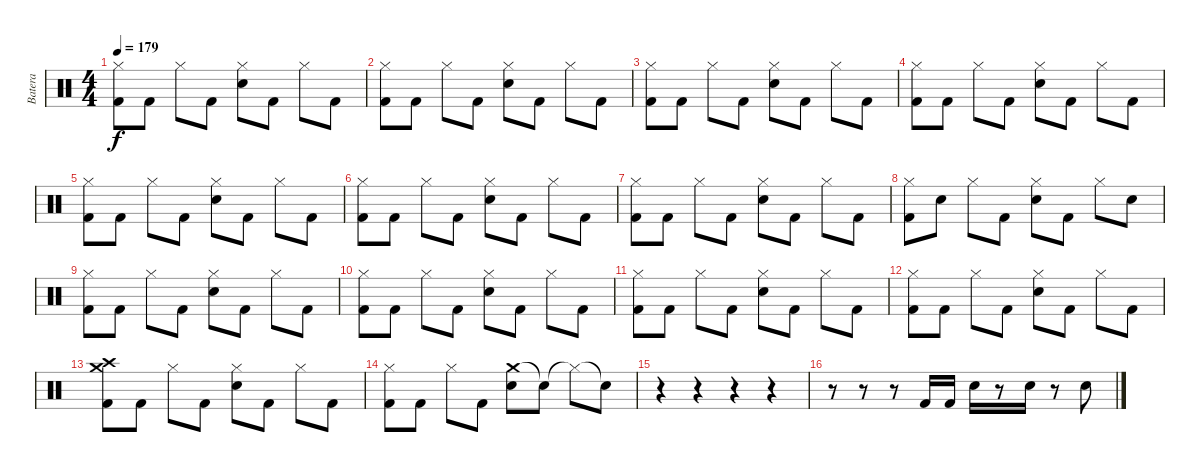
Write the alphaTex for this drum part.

\track ("Batera" "Batera") {instrument percussion}
\staff {score}
\articulation defaults
\ts (4 4)
\tempo 179
\clef neutral
\ks c
("Hi-Hat (closed)" "Kick (hit) 2").8{dy f volume 16} "Kick (hit) 2".8 "Hi-Hat (closed)".8 "Kick (hit) 2".8 ("Hi-Hat (closed)" "Electric Snare (hit)").8 "Kick (hit) 2".8 "Hi-Hat (closed)".8 "Kick (hit) 2".8 |
("Hi-Hat (closed)" "Kick (hit) 2").8 "Kick (hit) 2".8 "Hi-Hat (closed)".8 "Kick (hit) 2".8 ("Hi-Hat (closed)" "Electric Snare (hit)").8 "Kick (hit) 2".8 "Hi-Hat (closed)".8 "Kick (hit) 2".8 |
("Hi-Hat (closed)" "Kick (hit) 2").8 "Kick (hit) 2".8 "Hi-Hat (closed)".8 "Kick (hit) 2".8 ("Hi-Hat (closed)" "Electric Snare (hit)").8 "Kick (hit) 2".8 "Hi-Hat (closed)".8 "Kick (hit) 2".8 |
("Hi-Hat (closed)" "Kick (hit) 2").8 "Kick (hit) 2".8 "Hi-Hat (closed)".8 "Kick (hit) 2".8 ("Hi-Hat (closed)" "Electric Snare (hit)").8 "Kick (hit) 2".8 "Hi-Hat (closed)".8 "Kick (hit) 2".8 |
("Hi-Hat (closed)" "Kick (hit) 2").8 "Kick (hit) 2".8 "Hi-Hat (closed)".8 "Kick (hit) 2".8 ("Hi-Hat (closed)" "Electric Snare (hit)").8 "Kick (hit) 2".8 "Hi-Hat (closed)".8 "Kick (hit) 2".8 |
("Hi-Hat (closed)" "Kick (hit) 2").8 "Kick (hit) 2".8 "Hi-Hat (closed)".8 "Kick (hit) 2".8 ("Hi-Hat (closed)" "Electric Snare (hit)").8 "Kick (hit) 2".8 "Hi-Hat (closed)".8 "Kick (hit) 2".8 |
("Hi-Hat (closed)" "Kick (hit) 2").8 "Kick (hit) 2".8 "Hi-Hat (closed)".8 "Kick (hit) 2".8 ("Hi-Hat (closed)" "Electric Snare (hit)").8 "Kick (hit) 2".8 "Hi-Hat (closed)".8 "Kick (hit) 2".8 |
("Hi-Hat (closed)" "Kick (hit) 2").8 "Electric Snare (hit)".8 "Hi-Hat (closed)".8 "Kick (hit) 2".8 ("Hi-Hat (closed)" "Electric Snare (hit)").8 "Kick (hit) 2".8 "Hi-Hat (closed)".8 "Electric Snare (hit)".8 |
("Hi-Hat (closed)" "Kick (hit) 2").8 "Kick (hit) 2".8 "Hi-Hat (closed)".8 "Kick (hit) 2".8 ("Hi-Hat (closed)" "Electric Snare (hit)").8 "Kick (hit) 2".8 "Hi-Hat (closed)".8 "Kick (hit) 2".8 |
("Hi-Hat (closed)" "Kick (hit) 2").8 "Kick (hit) 2".8 "Hi-Hat (closed)".8 "Kick (hit) 2".8 ("Hi-Hat (closed)" "Electric Snare (hit)").8 "Kick (hit) 2".8 "Hi-Hat (closed)".8 "Kick (hit) 2".8 |
("Hi-Hat (closed)" "Kick (hit) 2").8 "Kick (hit) 2".8 "Hi-Hat (closed)".8 "Kick (hit) 2".8 ("Hi-Hat (closed)" "Electric Snare (hit)").8 "Kick (hit) 2".8 "Hi-Hat (closed)".8 "Kick (hit) 2".8 |
("Hi-Hat (closed)" "Kick (hit) 2").8 "Kick (hit) 2".8 "Hi-Hat (closed)".8 "Kick (hit) 2".8 ("Hi-Hat (closed)" "Electric Snare (hit)").8 "Kick (hit) 2".8 "Hi-Hat (closed)".8 "Kick (hit) 2".8 |
("Crash high (hit)" "Crash medium (hit)" "Kick (hit) 2").8 "Kick (hit) 2".8 "Hi-Hat (closed)".8 "Kick (hit) 2".8 ("Hi-Hat (closed)" "Electric Snare (hit)").8 "Kick (hit) 2".8 "Hi-Hat (closed)".8 "Kick (hit) 2".8 |
("Hi-Hat (closed)" "Kick (hit) 2").8 "Kick (hit) 2".8 "Hi-Hat (closed)".8 "Kick (hit) 2".8 ("Crash medium (hit)" "Electric Snare (hit)").8 "Snare (hit)"{t}.8 "Hi-Hat (closed)"{t}.8 "Snare (hit)"{t}.8 |
r.4 r.4 r.4 r.4 |
r.8 r.8 r.8 "Kick (hit) 2".16 "Kick (hit) 2".16 "Electric Snare (hit)".16 r.8 "Electric Snare (hit)".16 r.8 "Electric Snare (hit)".8
